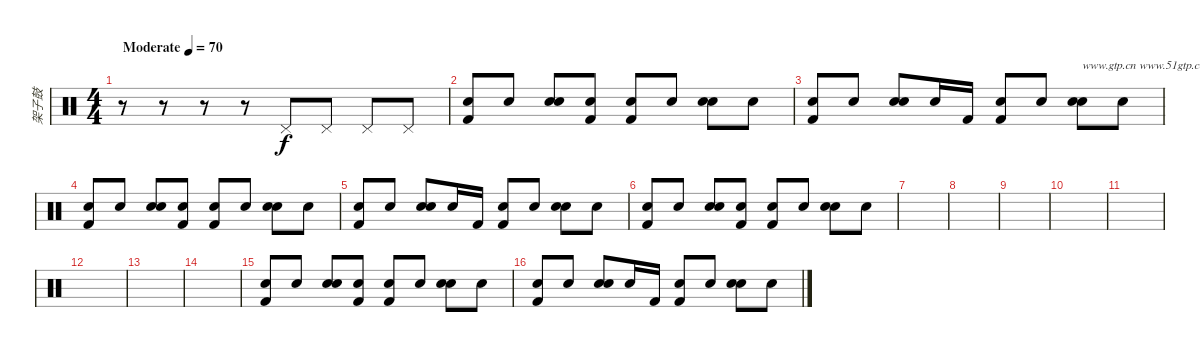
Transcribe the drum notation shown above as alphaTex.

\track ("架子鼓" "架子鼓") {instrument percussion}
\staff {score}
\articulation defaults
\ts (4 4)
\tempo (70 "Moderate")
\clef neutral
\ks c
r.8{dy f} r.8 r.8 r.8 "Pedal Hi-Hat (hit)".8 "Pedal Hi-Hat (hit)".8 "Pedal Hi-Hat (hit)".8 "Pedal Hi-Hat (hit)".8 |
("Snare (hit)" "Kick (hit) 2").8 "Snare (hit)".8 ("Snare (hit)" "Snare (hit) 2").8 ("Snare (hit)" "Kick (hit) 2").8 ("Snare (hit)" "Kick (hit) 2").8 "Snare (hit)".8 ("Snare (hit)" "Snare (hit) 2").8 "Snare (hit)".8 |
("Snare (hit)" "Kick (hit) 2").8 "Snare (hit)".8 ("Snare (hit)" "Snare (hit) 2").8 "Snare (hit)".16 "Kick (hit) 2".16 ("Snare (hit)" "Kick (hit) 2").8 "Snare (hit)".8 ("Snare (hit)" "Snare (hit) 2").8{txt "www.gtp.cn www.51gtp.com联合为您提供优秀的GTP!"} "Snare (hit)".8 |
("Snare (hit)" "Kick (hit) 2").8 "Snare (hit)".8 ("Snare (hit)" "Snare (hit) 2").8 ("Snare (hit)" "Kick (hit) 2").8 ("Snare (hit)" "Kick (hit) 2").8 "Snare (hit)".8 ("Snare (hit)" "Snare (hit) 2").8 "Snare (hit)".8 |
("Snare (hit)" "Kick (hit) 2").8 "Snare (hit)".8 ("Snare (hit)" "Snare (hit) 2").8 "Snare (hit)".16 "Kick (hit) 2".16 ("Snare (hit)" "Kick (hit) 2").8 "Snare (hit)".8 ("Snare (hit)" "Snare (hit) 2").8 "Snare (hit)".8 |
("Snare (hit)" "Kick (hit) 2").8 "Snare (hit)".8 ("Snare (hit)" "Snare (hit) 2").8 ("Snare (hit)" "Kick (hit) 2").8 ("Snare (hit)" "Kick (hit) 2").8 "Snare (hit)".8 ("Snare (hit)" "Snare (hit) 2").8 "Snare (hit)".8 |
|
|
|
|
|
|
|
|
("Snare (hit)" "Kick (hit) 2").8 "Snare (hit)".8 ("Snare (hit)" "Snare (hit) 2").8 ("Snare (hit)" "Kick (hit) 2").8 ("Snare (hit)" "Kick (hit) 2").8 "Snare (hit)".8 ("Snare (hit)" "Snare (hit) 2").8 "Snare (hit)".8 |
("Snare (hit)" "Kick (hit) 2").8 "Snare (hit)".8 ("Snare (hit)" "Snare (hit) 2").8 "Snare (hit)".16 "Kick (hit) 2".16 ("Snare (hit)" "Kick (hit) 2").8 "Snare (hit)".8 ("Snare (hit)" "Snare (hit) 2").8 "Snare (hit)".8
